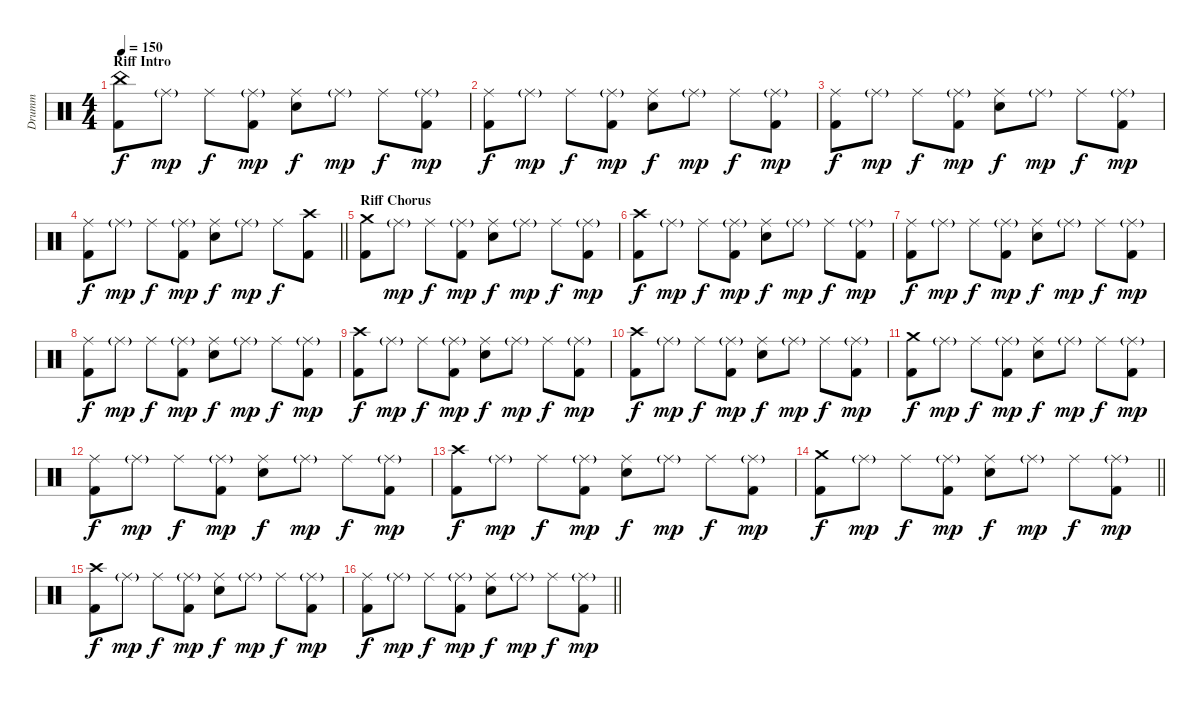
\track ("Drumm" "Drumm") {instrument percussion}
\staff {score}
\articulation defaults
\ts (4 4)
\section ("" "Riff Intro")
\tempo 150
\clef neutral
\ks c
("China (hit)" "Kick (hit) 2").8{dy f} "Ride (middle)"{g}.8{dy mp} "Ride (middle)".8{dy f} ("Ride (middle)"{g} "Kick (hit) 2").8{dy mp} ("Ride (middle)" "Snare (hit) 2").8{dy f} "Ride (middle)"{g}.8{dy mp} "Ride (middle)".8{dy f} ("Ride (middle)"{g} "Kick (hit) 2").8{dy mp} |
("Ride (middle)" "Kick (hit) 2").8{dy f} "Ride (middle)"{g}.8{dy mp} "Ride (middle)".8{dy f} ("Ride (middle)"{g} "Kick (hit) 2").8{dy mp} ("Ride (middle)" "Snare (hit) 2").8{dy f} "Ride (middle)"{g}.8{dy mp} "Ride (middle)".8{dy f} ("Ride (middle)"{g} "Kick (hit) 2").8{dy mp} |
("Ride (middle)" "Kick (hit) 2").8{dy f} "Ride (middle)"{g}.8{dy mp} "Ride (middle)".8{dy f} ("Ride (middle)"{g} "Kick (hit) 2").8{dy mp} ("Ride (middle)" "Snare (hit) 2").8{dy f} "Ride (middle)"{g}.8{dy mp} "Ride (middle)".8{dy f} ("Ride (middle)"{g} "Kick (hit) 2").8{dy mp} |
\barLineRight lightlight
("Ride (middle)" "Kick (hit) 2").8{dy f} "Ride (middle)"{g}.8{dy mp} "Ride (middle)".8{dy f} ("Ride (middle)"{g} "Kick (hit) 2").8{dy mp} ("Ride (middle)" "Snare (hit) 2").8{dy f} "Ride (middle)"{g}.8{dy mp} "Ride (middle)".8{dy f} ("Crash high (hit)" "Kick (hit) 2").8 |
\section ("" "Riff Chorus")
("Crash medium (hit)" "Kick (hit) 2").8 "Ride (middle)"{g}.8{dy mp} "Ride (middle)".8{dy f} ("Ride (middle)"{g} "Kick (hit) 2").8{dy mp} ("Ride (middle)" "Snare (hit) 2").8{dy f} "Ride (middle)"{g}.8{dy mp} "Ride (middle)".8{dy f} ("Ride (middle)"{g} "Kick (hit) 2").8{dy mp} |
("Crash high (hit)" "Kick (hit) 2").8{dy f} "Ride (middle)"{g}.8{dy mp} "Ride (middle)".8{dy f} ("Ride (middle)"{g} "Kick (hit) 2").8{dy mp} ("Ride (middle)" "Snare (hit) 2").8{dy f} "Ride (middle)"{g}.8{dy mp} "Ride (middle)".8{dy f} ("Ride (middle)"{g} "Kick (hit) 2").8{dy mp} |
("Ride (middle)" "Kick (hit) 2").8{dy f} "Ride (middle)"{g}.8{dy mp} "Ride (middle)".8{dy f} ("Ride (middle)"{g} "Kick (hit) 2").8{dy mp} ("Ride (middle)" "Snare (hit) 2").8{dy f} "Ride (middle)"{g}.8{dy mp} "Ride (middle)".8{dy f} ("Ride (middle)"{g} "Kick (hit) 2").8{dy mp} |
("Ride (middle)" "Kick (hit) 2").8{dy f} "Ride (middle)"{g}.8{dy mp} "Ride (middle)".8{dy f} ("Ride (middle)"{g} "Kick (hit) 2").8{dy mp} ("Ride (middle)" "Snare (hit) 2").8{dy f} "Ride (middle)"{g}.8{dy mp} "Ride (middle)".8{dy f} ("Ride (middle)"{g} "Kick (hit) 2").8{dy mp} |
("Crash high (hit)" "Kick (hit) 2").8{dy f} "Ride (middle)"{g}.8{dy mp} "Ride (middle)".8{dy f} ("Ride (middle)"{g} "Kick (hit) 2").8{dy mp} ("Ride (middle)" "Snare (hit) 2").8{dy f} "Ride (middle)"{g}.8{dy mp} "Ride (middle)".8{dy f} ("Ride (middle)"{g} "Kick (hit) 2").8{dy mp} |
("Crash high (hit)" "Kick (hit) 2").8{dy f} "Ride (middle)"{g}.8{dy mp} "Ride (middle)".8{dy f} ("Ride (middle)"{g} "Kick (hit) 2").8{dy mp} ("Ride (middle)" "Snare (hit) 2").8{dy f} "Ride (middle)"{g}.8{dy mp} "Ride (middle)".8{dy f} ("Ride (middle)"{g} "Kick (hit) 2").8{dy mp} |
("Crash medium (hit)" "Kick (hit) 2").8{dy f} "Ride (middle)"{g}.8{dy mp} "Ride (middle)".8{dy f} ("Ride (middle)"{g} "Kick (hit) 2").8{dy mp} ("Ride (middle)" "Snare (hit) 2").8{dy f} "Ride (middle)"{g}.8{dy mp} "Ride (middle)".8{dy f} ("Ride (middle)"{g} "Kick (hit) 2").8{dy mp} |
("Ride (middle)" "Kick (hit) 2").8{dy f} "Ride (middle)"{g}.8{dy mp} "Ride (middle)".8{dy f} ("Ride (middle)"{g} "Kick (hit) 2").8{dy mp} ("Ride (middle)" "Snare (hit) 2").8{dy f} "Ride (middle)"{g}.8{dy mp} "Ride (middle)".8{dy f} ("Ride (middle)"{g} "Kick (hit) 2").8{dy mp} |
("Crash high (hit)" "Kick (hit) 2").8{dy f} "Ride (middle)"{g}.8{dy mp} "Ride (middle)".8{dy f} ("Ride (middle)"{g} "Kick (hit) 2").8{dy mp} ("Ride (middle)" "Snare (hit) 2").8{dy f} "Ride (middle)"{g}.8{dy mp} "Ride (middle)".8{dy f} ("Ride (middle)"{g} "Kick (hit) 2").8{dy mp} |
\barLineRight lightlight
("Crash medium (hit)" "Kick (hit) 2").8{dy f} "Ride (middle)"{g}.8{dy mp} "Ride (middle)".8{dy f} ("Ride (middle)"{g} "Kick (hit) 2").8{dy mp} ("Ride (middle)" "Snare (hit) 2").8{dy f} "Ride (middle)"{g}.8{dy mp} "Ride (middle)".8{dy f} ("Ride (middle)"{g} "Kick (hit) 2").8{dy mp} |
("Crash high (hit)" "Kick (hit) 2").8{dy f} "Ride (middle)"{g}.8{dy mp} "Ride (middle)".8{dy f} ("Ride (middle)"{g} "Kick (hit) 2").8{dy mp} ("Ride (middle)" "Snare (hit) 2").8{dy f} "Ride (middle)"{g}.8{dy mp} "Ride (middle)".8{dy f} ("Ride (middle)"{g} "Kick (hit) 2").8{dy mp} |
\barLineRight lightlight
("Ride (middle)" "Kick (hit) 2").8{dy f} "Ride (middle)"{g}.8{dy mp} "Ride (middle)".8{dy f} ("Ride (middle)"{g} "Kick (hit) 2").8{dy mp} ("Ride (middle)" "Snare (hit) 2").8{dy f} "Ride (middle)"{g}.8{dy mp} "Ride (middle)".8{dy f} ("Ride (middle)"{g} "Kick (hit) 2").8{dy mp}
